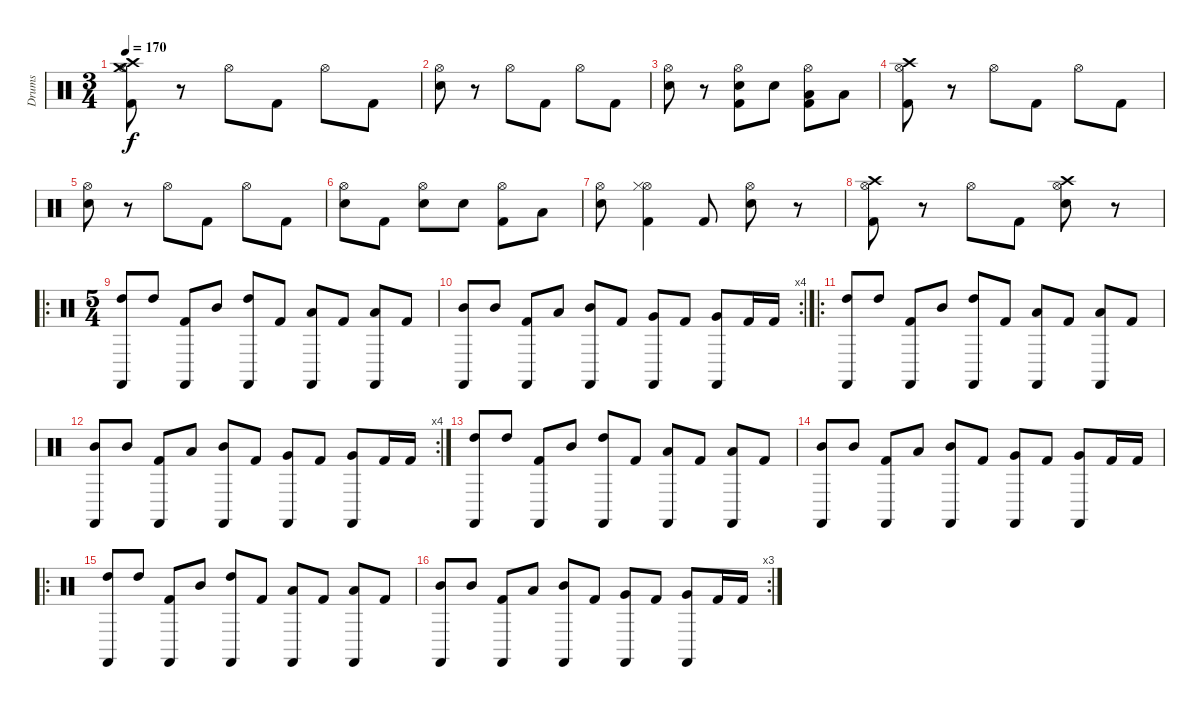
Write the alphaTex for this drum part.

\track ("Drums" "Drums") {instrument percussion}
\staff {score}
\articulation defaults
\ts (3 4)
\tempo 170
\clef neutral
\ks c
("Hi-Hat (open)" "Crash high (hit)" "Crash medium (hit)" "Kick (hit) 2").8{dy f} r.8 "Hi-Hat (open)".8 "Kick (hit) 2".8 "Hi-Hat (open)".8 "Kick (hit) 2".8 |
("Hi-Hat (open)" "Electric Snare (hit)").8 r.8 "Hi-Hat (open)".8 "Kick (hit) 2".8 "Hi-Hat (open)".8 "Kick (hit) 2".8 |
("Hi-Hat (open)" "Electric Snare (hit)").8 r.8 ("Hi-Hat (open)" "Electric Snare (hit)" "Kick (hit) 2").8 "Electric Snare (hit)".8 ("Hi-Hat (open)" "Low Tom (hit)" "Kick (hit) 2").8 "Low Tom (hit)".8 |
("Hi-Hat (open)" "Crash high (hit)" "Kick (hit) 2").8 r.8 "Hi-Hat (open)".8 "Kick (hit) 2".8 "Hi-Hat (open)".8 "Kick (hit) 2".8 |
("Hi-Hat (open)" "Electric Snare (hit)").8 r.8 "Hi-Hat (open)".8 "Kick (hit) 2".8 "Hi-Hat (open)".8 "Kick (hit) 2".8 |
("Hi-Hat (open)" "Electric Snare (hit)").8 "Kick (hit) 2".8 ("Hi-Hat (open)" "Electric Snare (hit)").8 "Electric Snare (hit)".8 ("Hi-Hat (open)" "Kick (hit) 2").8 "Low Tom (hit)".8 |
("Hi-Hat (open)" "Electric Snare (hit)").8 ("Hi-Hat (open)" "Hi-Hat (closed)" "Kick (hit) 2").4 "Kick (hit) 2".8 ("Hi-Hat (open)" "Electric Snare (hit)").8 r.8 |
("Hi-Hat (open)" "Crash high (hit)" "Kick (hit) 2").8 r.8 "Hi-Hat (open)".8 "Kick (hit) 2".8 ("Hi-Hat (open)" "Electric Snare (hit)" "Crash high (hit)").8 r.8 |
\ro
\ts (5 4)
("High Tom (hit)" "Castanets (hit)").8 "High Tom (hit)".8 ("Castanets (hit)" "Kick (hit) 2").8 "Mid Tom (hit)".8 ("High Tom (hit)" "Castanets (hit)").8 "Kick (hit) 2".8 ("Low Tom (hit)" "Castanets (hit)").8 "Kick (hit) 2".8 ("Low Tom (hit)" "Castanets (hit)").8 "Kick (hit) 2".8 |
\rc 4
("Mid Tom (hit)" "Castanets (hit)").8 "Mid Tom (hit)".8 ("Castanets (hit)" "Kick (hit) 2").8 "Low Tom (hit)".8 ("Mid Tom (hit)" "Castanets (hit)").8 "Kick (hit) 2".8 ("Very Low Tom (hit)" "Castanets (hit)").8 "Kick (hit) 2".8 ("Very Low Tom (hit)" "Castanets (hit)").8 "Kick (hit) 2".16 "Kick (hit) 2".16 |
\ro
("High Tom (hit)" "Castanets (hit)").8 "High Tom (hit)".8 ("Castanets (hit)" "Kick (hit) 2").8 "Mid Tom (hit)".8 ("High Tom (hit)" "Castanets (hit)").8 "Kick (hit) 2".8 ("Low Tom (hit)" "Castanets (hit)").8 "Kick (hit) 2".8 ("Low Tom (hit)" "Castanets (hit)").8 "Kick (hit) 2".8 |
\rc 4
("Mid Tom (hit)" "Castanets (hit)").8 "Mid Tom (hit)".8 ("Castanets (hit)" "Kick (hit) 2").8 "Low Tom (hit)".8 ("Mid Tom (hit)" "Castanets (hit)").8 "Kick (hit) 2".8 ("Very Low Tom (hit)" "Castanets (hit)").8 "Kick (hit) 2".8 ("Very Low Tom (hit)" "Castanets (hit)").8 "Kick (hit) 2".16 "Kick (hit) 2".16 |
("High Tom (hit)" "Castanets (hit)").8 "High Tom (hit)".8 ("Castanets (hit)" "Kick (hit) 2").8 "Mid Tom (hit)".8 ("High Tom (hit)" "Castanets (hit)").8 "Kick (hit) 2".8 ("Low Tom (hit)" "Castanets (hit)").8 "Kick (hit) 2".8 ("Low Tom (hit)" "Castanets (hit)").8 "Kick (hit) 2".8 |
("Mid Tom (hit)" "Castanets (hit)").8 "Mid Tom (hit)".8 ("Castanets (hit)" "Kick (hit) 2").8 "Low Tom (hit)".8 ("Mid Tom (hit)" "Castanets (hit)").8 "Kick (hit) 2".8 ("Very Low Tom (hit)" "Castanets (hit)").8 "Kick (hit) 2".8 ("Very Low Tom (hit)" "Castanets (hit)").8 "Kick (hit) 2".16 "Kick (hit) 2".16 |
\ro
("High Tom (hit)" "Castanets (hit)").8 "High Tom (hit)".8 ("Castanets (hit)" "Kick (hit) 2").8 "Mid Tom (hit)".8 ("High Tom (hit)" "Castanets (hit)").8 "Kick (hit) 2".8 ("Low Tom (hit)" "Castanets (hit)").8 "Kick (hit) 2".8 ("Low Tom (hit)" "Castanets (hit)").8 "Kick (hit) 2".8 |
\rc 3
("Mid Tom (hit)" "Castanets (hit)").8 "Mid Tom (hit)".8 ("Castanets (hit)" "Kick (hit) 2").8 "Low Tom (hit)".8 ("Mid Tom (hit)" "Castanets (hit)").8 "Kick (hit) 2".8 ("Very Low Tom (hit)" "Castanets (hit)").8 "Kick (hit) 2".8 ("Very Low Tom (hit)" "Castanets (hit)").8 "Kick (hit) 2".16 "Kick (hit) 2".16
